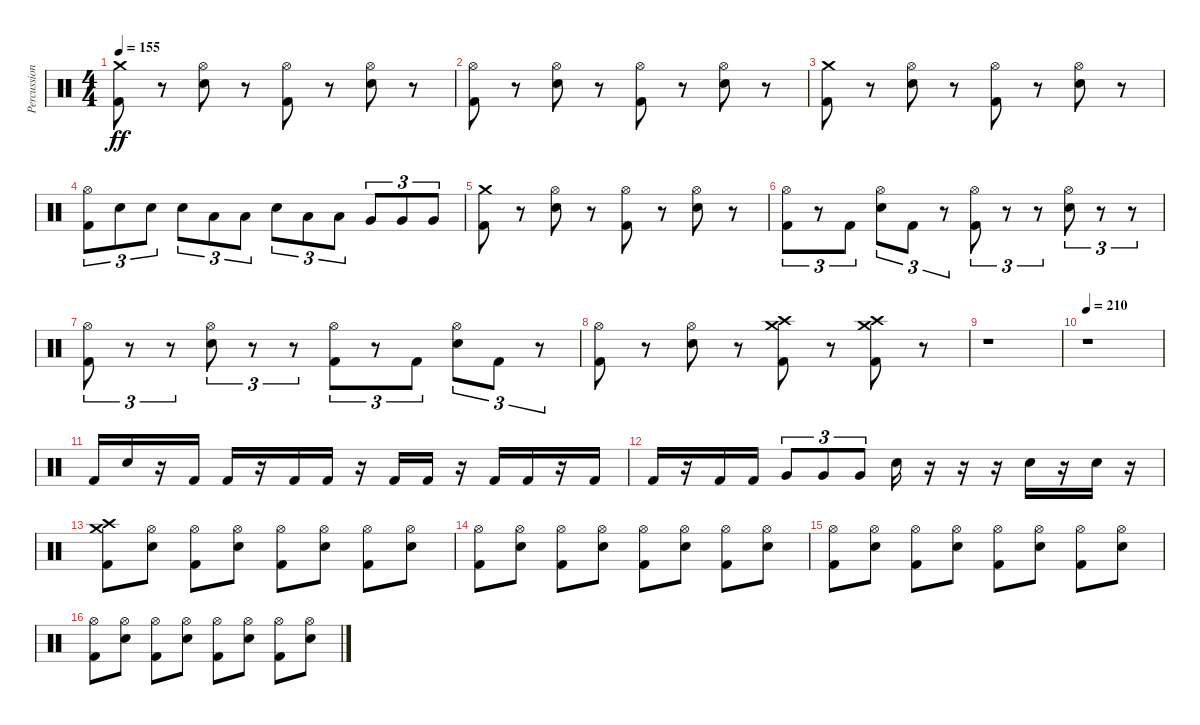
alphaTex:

\track ("Percussion" "Percussion") {instrument percussion}
\staff {score}
\articulation defaults
\ts (4 4)
\tempo 155
\clef neutral
\ks c
("Kick (hit) 2" "Crash medium (hit)").8{dy ff} r.8 ("Electric Snare (hit)" "Hi-Hat (open)").8 r.8 ("Kick (hit) 2" "Hi-Hat (open)").8 r.8 ("Electric Snare (hit)" "Hi-Hat (open)").8 r.8 |
("Kick (hit) 2" "Hi-Hat (open)").8 r.8 ("Electric Snare (hit)" "Hi-Hat (open)").8 r.8 ("Kick (hit) 2" "Hi-Hat (open)").8 r.8 ("Electric Snare (hit)" "Hi-Hat (open)").8 r.8 |
("Kick (hit) 2" "Crash medium (hit)").8 r.8 ("Electric Snare (hit)" "Hi-Hat (open)").8 r.8 ("Kick (hit) 2" "Hi-Hat (open)").8 r.8 ("Electric Snare (hit)" "Hi-Hat (open)").8 r.8 |
("Kick (hit) 2" "Hi-Hat (open)").8{tu (3 2)} "Electric Snare (hit)".8{tu (3 2)} "Electric Snare (hit)".8{tu (3 2)} "Electric Snare (hit)".8{tu (3 2)} "Low Tom (hit)".8{tu (3 2)} "Low Tom (hit)".8{tu (3 2)} "Electric Snare (hit)".8{tu (3 2)} "Low Tom (hit)".8{tu (3 2)} "Low Tom (hit)".8{tu (3 2)} "Very Low Tom (hit)".8{tu (3 2)} "Very Low Tom (hit)".8{tu (3 2)} "Very Low Tom (hit)".8{tu (3 2)} |
("Kick (hit) 2" "Crash medium (hit)").8 r.8 ("Electric Snare (hit)" "Hi-Hat (open)").8 r.8 ("Kick (hit) 2" "Hi-Hat (open)").8 r.8 ("Electric Snare (hit)" "Hi-Hat (open)").8 r.8 |
("Kick (hit) 2" "Hi-Hat (open)").8{tu (3 2)} r.8{tu (3 2)} "Kick (hit) 2".8{tu (3 2)} ("Electric Snare (hit)" "Hi-Hat (open)").8{tu (3 2)} "Kick (hit) 2".8{tu (3 2)} r.8{tu (3 2)} ("Kick (hit) 2" "Hi-Hat (open)").8{tu (3 2)} r.8{tu (3 2)} r.8{tu (3 2)} ("Electric Snare (hit)" "Hi-Hat (open)").8{tu (3 2)} r.8{tu (3 2)} r.8{tu (3 2)} |
("Kick (hit) 2" "Hi-Hat (open)").8{tu (3 2)} r.8{tu (3 2)} r.8{tu (3 2)} ("Electric Snare (hit)" "Hi-Hat (open)").8{tu (3 2)} r.8{tu (3 2)} r.8{tu (3 2)} ("Kick (hit) 2" "Hi-Hat (open)").8{tu (3 2)} r.8{tu (3 2)} "Kick (hit) 2".8{tu (3 2)} ("Electric Snare (hit)" "Hi-Hat (open)").8{tu (3 2)} "Kick (hit) 2".8{tu (3 2)} r.8{tu (3 2)} |
("Kick (hit) 2" "Hi-Hat (open)").8 r.8 ("Electric Snare (hit)" "Hi-Hat (open)").8 r.8 ("Kick (hit) 2" "Crash medium (hit)" "Crash high (hit)").8 r.8 ("Kick (hit) 2" "Crash medium (hit)" "Crash high (hit)").8 r.8 |
r.1 |
\tempo 210
r.1 |
"Kick (hit) 2".16 "Electric Snare (hit)".16 r.16 "Kick (hit) 2".16 "Kick (hit) 2".16 r.16 "Kick (hit) 2".16 "Kick (hit) 2".16 r.16 "Kick (hit) 2".16 "Kick (hit) 2".16 r.16 "Kick (hit) 2".16 "Kick (hit) 2".16 r.16 "Kick (hit) 2".16 |
"Kick (hit) 2".16 r.16 "Kick (hit) 2".16 "Kick (hit) 2".16 "Very Low Tom (hit)".8{tu (3 2)} "Very Low Tom (hit)".8{tu (3 2)} "Very Low Tom (hit)".8{tu (3 2)} "Electric Snare (hit)".16 r.16 r.16 r.16 "Electric Snare (hit)".16 r.16 "Electric Snare (hit)".16 r.16 |
("Kick (hit) 2" "Crash medium (hit)" "Crash high (hit)").8 ("Electric Snare (hit)" "Hi-Hat (open)").8 ("Kick (hit) 2" "Hi-Hat (open)").8 ("Electric Snare (hit)" "Hi-Hat (open)").8 ("Kick (hit) 2" "Hi-Hat (open)").8 ("Electric Snare (hit)" "Hi-Hat (open)").8 ("Kick (hit) 2" "Hi-Hat (open)").8 ("Electric Snare (hit)" "Hi-Hat (open)").8 |
("Kick (hit) 2" "Hi-Hat (open)").8 ("Electric Snare (hit)" "Hi-Hat (open)").8 ("Kick (hit) 2" "Hi-Hat (open)").8 ("Electric Snare (hit)" "Hi-Hat (open)").8 ("Kick (hit) 2" "Hi-Hat (open)").8 ("Electric Snare (hit)" "Hi-Hat (open)").8 ("Kick (hit) 2" "Hi-Hat (open)").8 ("Electric Snare (hit)" "Hi-Hat (open)").8 |
("Kick (hit) 2" "Hi-Hat (open)").8 ("Electric Snare (hit)" "Hi-Hat (open)").8 ("Kick (hit) 2" "Hi-Hat (open)").8 ("Electric Snare (hit)" "Hi-Hat (open)").8 ("Kick (hit) 2" "Hi-Hat (open)").8 ("Electric Snare (hit)" "Hi-Hat (open)").8 ("Kick (hit) 2" "Hi-Hat (open)").8 ("Electric Snare (hit)" "Hi-Hat (open)").8 |
("Kick (hit) 2" "Hi-Hat (open)").8 ("Electric Snare (hit)" "Hi-Hat (open)").8 ("Kick (hit) 2" "Hi-Hat (open)").8 ("Electric Snare (hit)" "Hi-Hat (open)").8 ("Kick (hit) 2" "Hi-Hat (open)").8 ("Electric Snare (hit)" "Hi-Hat (open)").8 ("Kick (hit) 2" "Hi-Hat (open)").8 ("Electric Snare (hit)" "Hi-Hat (open)").8
